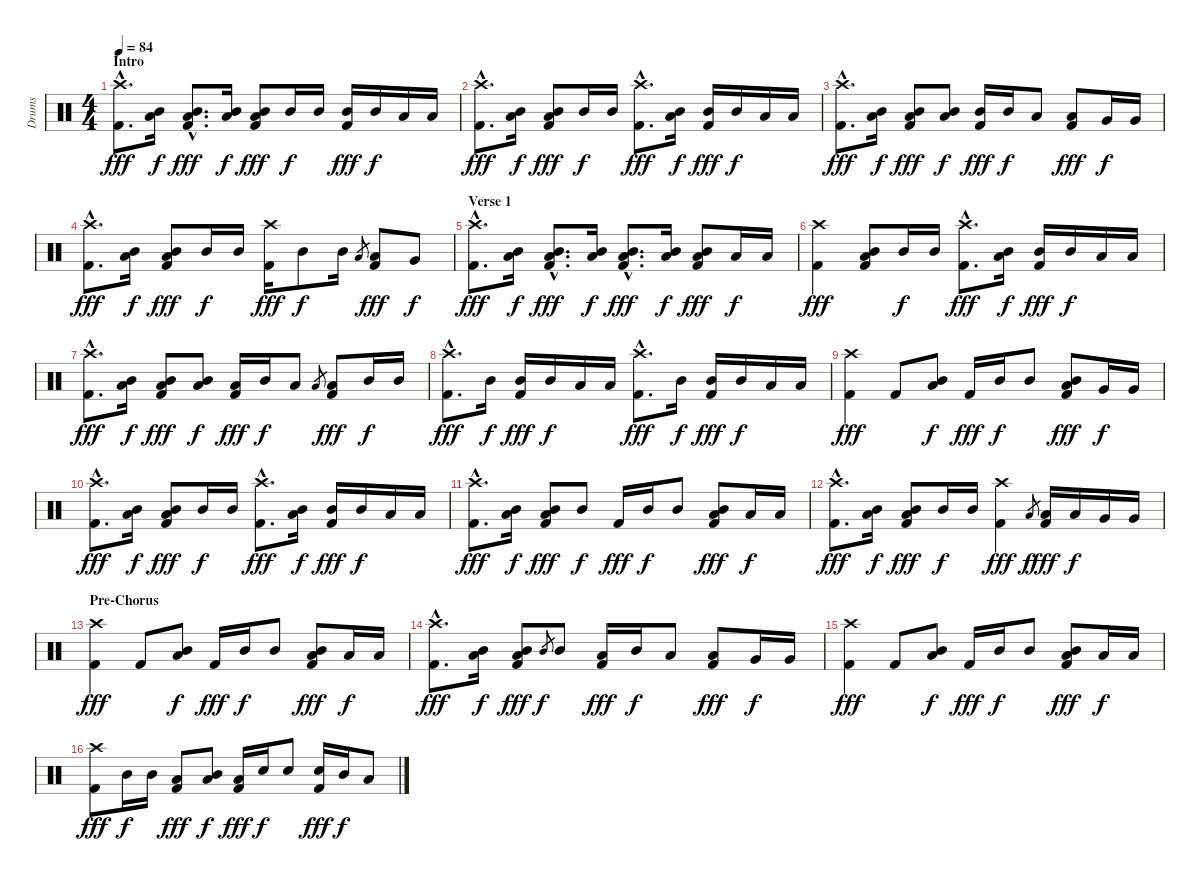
\track ("Drums" "Drums") {instrument percussion}
\staff {score}
\articulation defaults
\ts (4 4)
\section ("" "Intro")
\tempo 84
\clef neutral
\ks c
("Crash high (hit)"{hac} "Kick (hit) 2"{hac}).8{d dy fff} ("Mid Tom (hit)" "Low Tom (hit)").16{dy f} ("Mid Tom (hit)"{hac} "Low Tom (hit)"{hac} "Kick (hit) 2"{hac}).8{d dy fff} ("Mid Tom (hit)" "Low Tom (hit)").16{dy f} ("Mid Tom (hit)" "Low Tom (hit)" "Kick (hit) 2").8{dy fff} "Mid Tom (hit)".16{dy f} "Mid Tom (hit)".16 ("Mid Tom (hit)" "Kick (hit) 2").16{dy fff} "Mid Tom (hit)".16{dy f} "Low Tom (hit)".16 "Low Tom (hit)".16 |
("Crash high (hit)"{hac} "Kick (hit) 2"{hac}).8{d dy fff} ("Mid Tom (hit)" "Low Tom (hit)").16{dy f} ("Mid Tom (hit)" "Low Tom (hit)" "Kick (hit) 2").8{dy fff} "Mid Tom (hit)".16{dy f} "Mid Tom (hit)".16 ("Crash high (hit)"{hac} "Kick (hit) 2"{hac}).8{d dy fff} ("Mid Tom (hit)" "Low Tom (hit)").16{dy f} ("Mid Tom (hit)" "Kick (hit) 2").16{dy fff} "Mid Tom (hit)".16{dy f} "Low Tom (hit)".16 "Low Tom (hit)".16 |
("Crash high (hit)"{hac} "Kick (hit) 2"{hac}).8{d dy fff} ("Mid Tom (hit)" "Low Tom (hit)").16{dy f} ("Mid Tom (hit)" "Low Tom (hit)" "Kick (hit) 2").8{dy fff} ("Mid Tom (hit)" "Low Tom (hit)").8{dy f} ("Mid Tom (hit)" "Kick (hit) 2").16{dy fff} "Mid Tom (hit)".16{dy f} "Low Tom (hit)".8 ("Low Tom (hit)" "Kick (hit) 2").8{dy fff} "Very Low Tom (hit)".16{dy f} "Very Low Tom (hit)".16 |
("Crash high (hit)"{hac} "Kick (hit) 2"{hac}).8{d dy fff} ("Mid Tom (hit)" "Low Tom (hit)").16{dy f} ("Mid Tom (hit)" "Low Tom (hit)" "Kick (hit) 2").8{dy fff} "Mid Tom (hit)".16{dy f} "Mid Tom (hit)".16 ("Crash high (hit)" "Kick (hit) 2").16{dy fff} "Mid Tom (hit)".8{dy f} "Mid Tom (hit)".16 "Low Tom (hit)".8{gr} ("Low Tom (hit)" "Kick (hit) 2").8{dy fff} "Very Low Tom (hit)".8{dy f} |
\section ("" "Verse 1")
("Crash high (hit)"{hac} "Kick (hit) 2"{hac}).8{d dy fff} ("Mid Tom (hit)" "Low Tom (hit)").16{dy f} ("Mid Tom (hit)"{hac} "Low Tom (hit)"{hac} "Kick (hit) 2"{hac}).8{d dy fff} ("Mid Tom (hit)" "Low Tom (hit)").16{dy f} ("Mid Tom (hit)"{hac} "Low Tom (hit)"{hac} "Kick (hit) 2"{hac}).8{d dy fff} ("Mid Tom (hit)" "Low Tom (hit)").16{dy f} ("Mid Tom (hit)" "Low Tom (hit)" "Kick (hit) 2").8{dy fff} "Low Tom (hit)".16{dy f} "Low Tom (hit)".16 |
("Crash high (hit)" "Kick (hit) 2").4{dy fff} ("Mid Tom (hit)" "Low Tom (hit)" "Kick (hit) 2").8 "Mid Tom (hit)".16{dy f} "Mid Tom (hit)".16 ("Crash high (hit)"{hac} "Kick (hit) 2"{hac}).8{d dy fff} ("Mid Tom (hit)" "Low Tom (hit)").16{dy f} ("Mid Tom (hit)" "Kick (hit) 2").16{dy fff} "Mid Tom (hit)".16{dy f} "Low Tom (hit)".16 "Low Tom (hit)".16 |
("Crash high (hit)"{hac} "Kick (hit) 2"{hac}).8{d dy fff} ("Mid Tom (hit)" "Low Tom (hit)").16{dy f} ("Mid Tom (hit)" "Low Tom (hit)" "Kick (hit) 2").8{dy fff} ("Mid Tom (hit)" "Low Tom (hit)").8{dy f} ("Low Tom (hit)" "Kick (hit) 2").16{dy fff} "Mid Tom (hit)".16{dy f} "Low Tom (hit)".8 "Low Tom (hit)".8{gr} ("Low Tom (hit)" "Kick (hit) 2").8{dy fff} "Mid Tom (hit)".16{dy f} "Mid Tom (hit)".16 |
("Crash high (hit)"{hac} "Kick (hit) 2"{hac}).8{d dy fff} "Mid Tom (hit)".16{dy f} ("Mid Tom (hit)" "Kick (hit) 2").16{dy fff} "Mid Tom (hit)".16{dy f} "Low Tom (hit)".16 "Low Tom (hit)".16 ("Crash high (hit)"{hac} "Kick (hit) 2"{hac}).8{d dy fff} "Mid Tom (hit)".16{dy f} ("Mid Tom (hit)" "Kick (hit) 2").16{dy fff} "Mid Tom (hit)".16{dy f} "Low Tom (hit)".16 "Low Tom (hit)".16 |
("Crash high (hit)" "Kick (hit) 2").4{dy fff} "Kick (hit) 2".8 ("Mid Tom (hit)" "Low Tom (hit)").8{dy f} "Kick (hit) 2".16{dy fff} "Mid Tom (hit)".16{dy f} "Mid Tom (hit)".8 ("Mid Tom (hit)" "Low Tom (hit)" "Kick (hit) 2").8{dy fff} "Very Low Tom (hit)".16{dy f} "Very Low Tom (hit)".16 |
("Crash high (hit)"{hac} "Kick (hit) 2"{hac}).8{d dy fff} ("Mid Tom (hit)" "Low Tom (hit)").16{dy f} ("Mid Tom (hit)" "Low Tom (hit)" "Kick (hit) 2").8{dy fff} "Mid Tom (hit)".16{dy f} "Mid Tom (hit)".16 ("Crash high (hit)"{hac} "Kick (hit) 2"{hac}).8{d dy fff} ("Mid Tom (hit)" "Low Tom (hit)").16{dy f} ("Mid Tom (hit)" "Kick (hit) 2").16{dy fff} "Mid Tom (hit)".16{dy f} "Low Tom (hit)".16 "Low Tom (hit)".16 |
("Crash high (hit)"{hac} "Kick (hit) 2"{hac}).8{d dy fff} ("Mid Tom (hit)" "Low Tom (hit)").16{dy f} ("Mid Tom (hit)" "Low Tom (hit)" "Kick (hit) 2").8{dy fff} "Mid Tom (hit)".8{dy f} "Kick (hit) 2".16{dy fff} "Mid Tom (hit)".16{dy f} "Mid Tom (hit)".8 ("Mid Tom (hit)" "Low Tom (hit)" "Kick (hit) 2").8{dy fff} "Low Tom (hit)".16{dy f} "Low Tom (hit)".16 |
("Crash high (hit)"{hac} "Kick (hit) 2"{hac}).8{d dy fff} ("Mid Tom (hit)" "Low Tom (hit)").16{dy f} ("Mid Tom (hit)" "Low Tom (hit)" "Kick (hit) 2").8{dy fff} "Mid Tom (hit)".16{dy f} "Mid Tom (hit)".16 ("Crash high (hit)" "Kick (hit) 2").4{dy fff} "Low Tom (hit)".8{gr dy f} ("Low Tom (hit)" "Kick (hit) 2").16{dy fff} "Low Tom (hit)".16{dy f} "Very Low Tom (hit)".16 "Very Low Tom (hit)".16 |
\section ("" "Pre-Chorus")
("Crash high (hit)" "Kick (hit) 2").4{dy fff} "Kick (hit) 2".8 ("Mid Tom (hit)" "Low Tom (hit)").8{dy f} "Kick (hit) 2".16{dy fff} "Mid Tom (hit)".16{dy f} "Mid Tom (hit)".8 ("Mid Tom (hit)" "Low Tom (hit)" "Kick (hit) 2").8{dy fff} "Low Tom (hit)".16{dy f} "Low Tom (hit)".16 |
("Crash high (hit)"{hac} "Kick (hit) 2"{hac}).8{d dy fff} ("Mid Tom (hit)" "Low Tom (hit)").16{dy f} ("Mid Tom (hit)" "Low Tom (hit)" "Kick (hit) 2").8{dy fff} "Mid Tom (hit)".8{gr dy f} "Mid Tom (hit)".8 ("Low Tom (hit)" "Kick (hit) 2").16{dy fff} "Mid Tom (hit)".16{dy f} "Low Tom (hit)".8 ("Low Tom (hit)" "Kick (hit) 2").8{dy fff} "Very Low Tom (hit)".16{dy f} "Very Low Tom (hit)".16 |
("Crash high (hit)" "Kick (hit) 2").4{dy fff} "Kick (hit) 2".8 ("Mid Tom (hit)" "Low Tom (hit)").8{dy f} "Kick (hit) 2".16{dy fff} "Mid Tom (hit)".16{dy f} "Mid Tom (hit)".8 ("Mid Tom (hit)" "Low Tom (hit)" "Kick (hit) 2").8{dy fff} "Low Tom (hit)".16{dy f} "Low Tom (hit)".16 |
("Crash high (hit)" "Kick (hit) 2").8{dy fff} "Mid Tom (hit)".16{dy f} "Mid Tom (hit)".16 ("Low Tom (hit)" "Kick (hit) 2").8{dy fff} ("Mid Tom (hit)" "Low Tom (hit)").8{dy f} ("Low Tom (hit)" "Kick (hit) 2").16{dy fff} "Electric Snare (hit)".16{dy f} "Electric Snare (hit)".8 ("Electric Snare (hit)" "Kick (hit) 2").16{dy fff} "Mid Tom (hit)".16{dy f} "Low Tom (hit)".8
